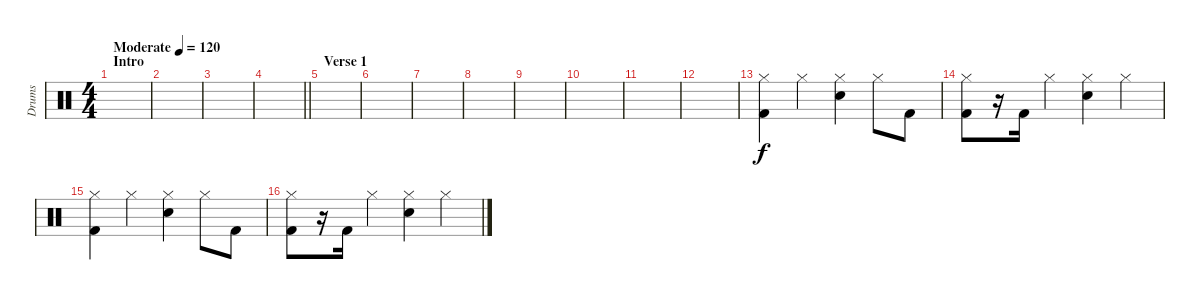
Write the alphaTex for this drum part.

\track ("Drums" "Drums") {instrument percussion}
\staff {score}
\articulation defaults
\ts (4 4)
\section ("" "Intro")
\tempo (120 "Moderate")
\clef neutral
\ks c
|
|
|
\barLineRight lightlight
|
\section ("" "Verse 1")
|
|
|
|
|
|
|
|
("Hi-Hat (closed)" "Kick (hit) 2").4 "Hi-Hat (closed)".4 ("Hi-Hat (closed)" "Electric Snare (hit)").4 "Hi-Hat (closed)".8 "Kick (hit) 2".8 |
("Hi-Hat (closed)" "Kick (hit) 2").8 r.16 "Kick (hit) 2".16 "Hi-Hat (closed)".4 ("Hi-Hat (closed)" "Electric Snare (hit)").4 "Hi-Hat (closed)".4 |
("Hi-Hat (closed)" "Kick (hit) 2").4 "Hi-Hat (closed)".4 ("Hi-Hat (closed)" "Electric Snare (hit)").4 "Hi-Hat (closed)".8 "Kick (hit) 2".8 |
("Hi-Hat (closed)" "Kick (hit) 2").8 r.16 "Kick (hit) 2".16 "Hi-Hat (closed)".4 ("Hi-Hat (closed)" "Electric Snare (hit)").4 "Hi-Hat (closed)".4
